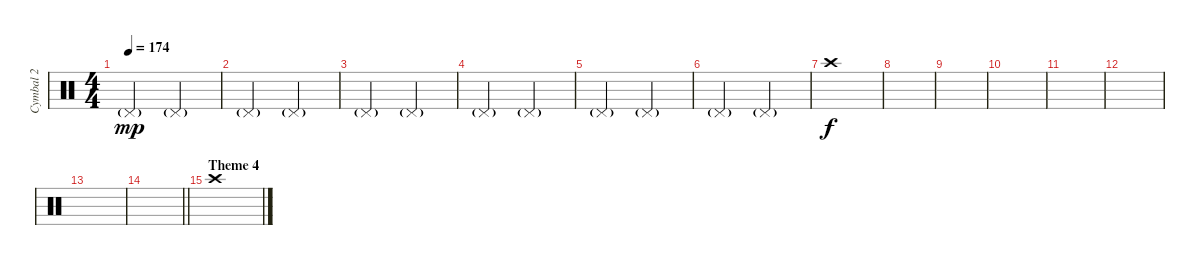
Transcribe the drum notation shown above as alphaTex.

\track ("Cymbal 2" "Cymbal 2") {instrument percussion}
\staff {score}
\articulation defaults
\ts (4 4)
\tempo 174
\clef neutral
\ks c "Pedal Hi-Hat (hit)"{g}.2{dy mp} "Pedal Hi-Hat (hit)"{g}.2
|
"Pedal Hi-Hat (hit)"{g}.2 "Pedal Hi-Hat (hit)"{g}.2 |
"Pedal Hi-Hat (hit)"{g}.2 "Pedal Hi-Hat (hit)"{g}.2 |
"Pedal Hi-Hat (hit)"{g}.2 "Pedal Hi-Hat (hit)"{g}.2 |
"Pedal Hi-Hat (hit)"{g}.2 "Pedal Hi-Hat (hit)"{g}.2 |
"Pedal Hi-Hat (hit)"{g}.2 "Pedal Hi-Hat (hit)"{g}.2 |
"Crash high (hit)".1{dy f} |
|
|
|
|
|
|
\barLineRight lightlight
|
\section ("" "Theme 4")
"Crash high (hit)".1
